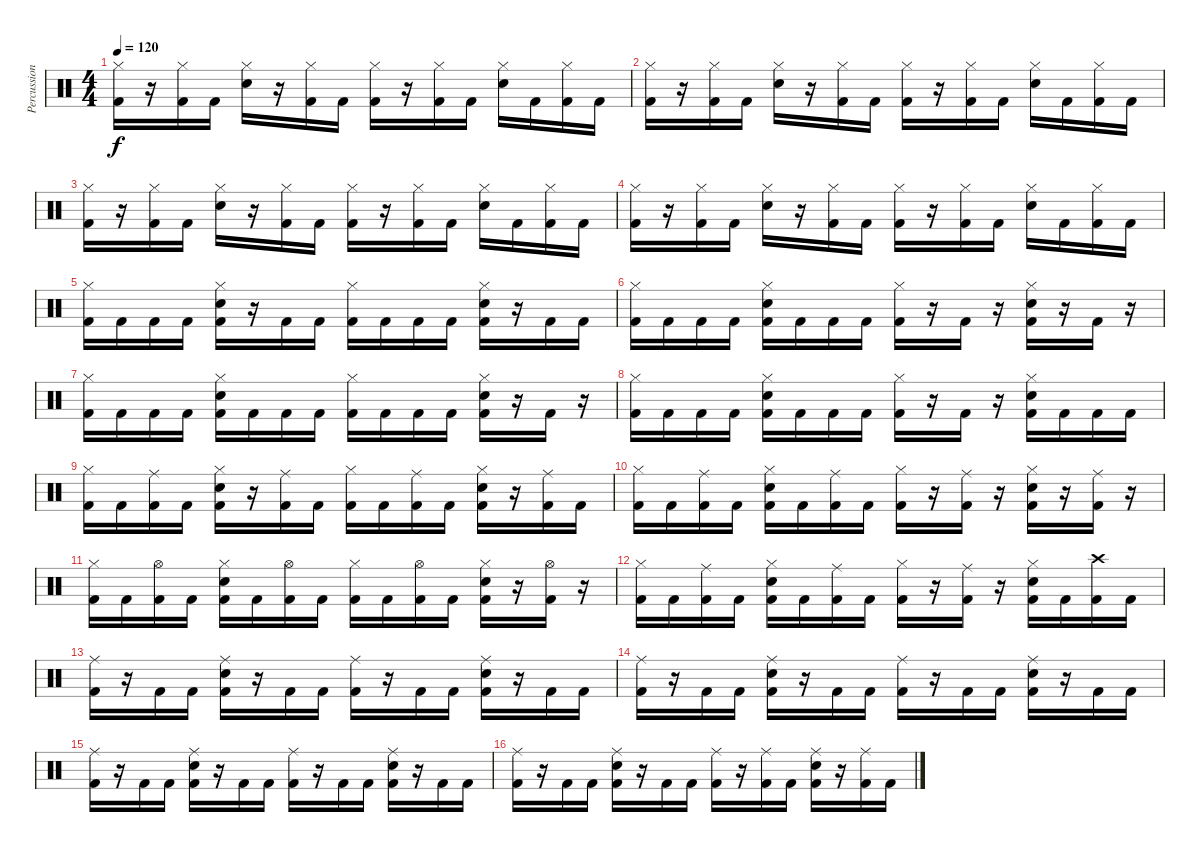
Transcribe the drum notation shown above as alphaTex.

\track ("Percussions" "Percussion") {instrument percussion}
\staff {score}
\articulation defaults
\ts (4 4)
\tempo 120
\clef neutral
\ks c
("Hi-Hat (closed)" "Kick (hit) 2").16{dy f} r.16 ("Hi-Hat (closed)" "Kick (hit) 2").16 "Kick (hit) 2".16 ("Hi-Hat (closed)" "Snare (hit) 2").16 r.16 ("Hi-Hat (closed)" "Kick (hit) 2").16 "Kick (hit) 2".16 ("Hi-Hat (closed)" "Kick (hit) 2").16 r.16 ("Hi-Hat (closed)" "Kick (hit) 2").16 "Kick (hit) 2".16 ("Hi-Hat (closed)" "Snare (hit) 2").16 "Kick (hit) 2".16 ("Hi-Hat (closed)" "Kick (hit) 2").16 "Kick (hit) 2".16 |
("Hi-Hat (closed)" "Kick (hit) 2").16 r.16 ("Hi-Hat (closed)" "Kick (hit) 2").16 "Kick (hit) 2".16 ("Hi-Hat (closed)" "Snare (hit) 2").16 r.16 ("Hi-Hat (closed)" "Kick (hit) 2").16 "Kick (hit) 2".16 ("Hi-Hat (closed)" "Kick (hit) 2").16 r.16 ("Hi-Hat (closed)" "Kick (hit) 2").16 "Kick (hit) 2".16 ("Hi-Hat (closed)" "Snare (hit) 2").16 "Kick (hit) 2".16 ("Hi-Hat (closed)" "Kick (hit) 2").16 "Kick (hit) 2".16 |
("Hi-Hat (closed)" "Kick (hit) 2").16 r.16 ("Hi-Hat (closed)" "Kick (hit) 2").16 "Kick (hit) 2".16 ("Hi-Hat (closed)" "Snare (hit) 2").16 r.16 ("Hi-Hat (closed)" "Kick (hit) 2").16 "Kick (hit) 2".16 ("Hi-Hat (closed)" "Kick (hit) 2").16 r.16 ("Hi-Hat (closed)" "Kick (hit) 2").16 "Kick (hit) 2".16 ("Hi-Hat (closed)" "Snare (hit) 2").16 "Kick (hit) 2".16 ("Hi-Hat (closed)" "Kick (hit) 2").16 "Kick (hit) 2".16 |
("Hi-Hat (closed)" "Kick (hit) 2").16 r.16 ("Hi-Hat (closed)" "Kick (hit) 2").16 "Kick (hit) 2".16 ("Hi-Hat (closed)" "Snare (hit) 2").16 r.16 ("Hi-Hat (closed)" "Kick (hit) 2").16 "Kick (hit) 2".16 ("Hi-Hat (closed)" "Kick (hit) 2").16 r.16 ("Hi-Hat (closed)" "Kick (hit) 2").16 "Kick (hit) 2".16 ("Hi-Hat (closed)" "Snare (hit) 2").16 "Kick (hit) 2".16 ("Hi-Hat (closed)" "Kick (hit) 2").16 "Kick (hit) 2".16 |
("Hi-Hat (closed)" "Kick (hit) 2").16 "Kick (hit) 2".16 "Kick (hit) 2".16 "Kick (hit) 2".16 ("Hi-Hat (closed)" "Kick (hit) 2" "Snare (hit) 2").16 r.16 "Kick (hit) 2".16 "Kick (hit) 2".16 ("Hi-Hat (closed)" "Kick (hit) 2").16 "Kick (hit) 2".16 "Kick (hit) 2".16 "Kick (hit) 2".16 ("Hi-Hat (closed)" "Kick (hit) 2" "Snare (hit) 2").16 r.16 "Kick (hit) 2".16 "Kick (hit) 2".16 |
("Hi-Hat (closed)" "Kick (hit) 2").16 "Kick (hit) 2".16 "Kick (hit) 2".16 "Kick (hit) 2".16 ("Hi-Hat (closed)" "Kick (hit) 2" "Snare (hit) 2").16 "Kick (hit) 2".16 "Kick (hit) 2".16 "Kick (hit) 2".16 ("Hi-Hat (closed)" "Kick (hit) 2").16 r.16 "Kick (hit) 2".16 r.16 ("Hi-Hat (closed)" "Kick (hit) 2" "Snare (hit) 2").16 r.16 "Kick (hit) 2".16 r.16 |
("Hi-Hat (closed)" "Kick (hit) 2").16 "Kick (hit) 2".16 "Kick (hit) 2".16 "Kick (hit) 2".16 ("Hi-Hat (closed)" "Kick (hit) 2" "Snare (hit) 2").16 "Kick (hit) 2".16 "Kick (hit) 2".16 "Kick (hit) 2".16 ("Hi-Hat (closed)" "Kick (hit) 2").16 "Kick (hit) 2".16 "Kick (hit) 2".16 "Kick (hit) 2".16 ("Hi-Hat (closed)" "Kick (hit) 2" "Snare (hit) 2").16 r.16 "Kick (hit) 2".16 r.16 |
("Hi-Hat (closed)" "Kick (hit) 2").16 "Kick (hit) 2".16 "Kick (hit) 2".16 "Kick (hit) 2".16 ("Hi-Hat (closed)" "Kick (hit) 2" "Snare (hit) 2").16 "Kick (hit) 2".16 "Kick (hit) 2".16 "Kick (hit) 2".16 ("Hi-Hat (closed)" "Kick (hit) 2").16 r.16 "Kick (hit) 2".16 r.16 ("Hi-Hat (closed)" "Kick (hit) 2" "Snare (hit) 2").16 "Kick (hit) 2".16 "Kick (hit) 2".16 "Kick (hit) 2".16 |
("Hi-Hat (closed)" "Kick (hit) 2").16 "Kick (hit) 2".16 ("Ride (middle)" "Kick (hit) 2").16 "Kick (hit) 2".16 ("Hi-Hat (closed)" "Kick (hit) 2" "Snare (hit) 2").16 r.16 ("Ride (middle)" "Kick (hit) 2").16 "Kick (hit) 2".16 ("Hi-Hat (closed)" "Kick (hit) 2").16 "Kick (hit) 2".16 ("Ride (middle)" "Kick (hit) 2").16 "Kick (hit) 2".16 ("Hi-Hat (closed)" "Kick (hit) 2" "Snare (hit) 2").16 r.16 ("Ride (middle)" "Kick (hit) 2").16 "Kick (hit) 2".16 |
("Hi-Hat (closed)" "Kick (hit) 2").16 "Kick (hit) 2".16 ("Ride (middle)" "Kick (hit) 2").16 "Kick (hit) 2".16 ("Hi-Hat (closed)" "Kick (hit) 2" "Snare (hit) 2").16 "Kick (hit) 2".16 ("Ride (middle)" "Kick (hit) 2").16 "Kick (hit) 2".16 ("Hi-Hat (closed)" "Kick (hit) 2").16 r.16 ("Ride (middle)" "Kick (hit) 2").16 r.16 ("Hi-Hat (closed)" "Kick (hit) 2" "Snare (hit) 2").16 r.16 ("Ride (middle)" "Kick (hit) 2").16 r.16 |
("Hi-Hat (closed)" "Kick (hit) 2").16 "Kick (hit) 2".16 ("Hi-Hat (open)" "Kick (hit) 2").16 "Kick (hit) 2".16 ("Hi-Hat (closed)" "Kick (hit) 2" "Snare (hit) 2").16 "Kick (hit) 2".16 ("Hi-Hat (open)" "Kick (hit) 2").16 "Kick (hit) 2".16 ("Hi-Hat (closed)" "Kick (hit) 2").16 "Kick (hit) 2".16 ("Hi-Hat (open)" "Kick (hit) 2").16 "Kick (hit) 2".16 ("Hi-Hat (closed)" "Kick (hit) 2" "Snare (hit) 2").16 r.16 ("Hi-Hat (open)" "Kick (hit) 2").16 r.16 |
("Hi-Hat (closed)" "Kick (hit) 2").16 "Kick (hit) 2".16 ("Ride (middle)" "Kick (hit) 2").16 "Kick (hit) 2".16 ("Hi-Hat (closed)" "Kick (hit) 2" "Snare (hit) 2").16 "Kick (hit) 2".16 ("Ride (middle)" "Kick (hit) 2").16 "Kick (hit) 2".16 ("Hi-Hat (closed)" "Kick (hit) 2").16 r.16 ("Ride (middle)" "Kick (hit) 2").16 r.16 ("Hi-Hat (closed)" "Kick (hit) 2" "Snare (hit) 2").16 "Kick (hit) 2".16 ("Crash high (hit)" "Kick (hit) 2").16 "Kick (hit) 2".16 |
("Ride (middle)" "Kick (hit) 2").16 r.16 "Kick (hit) 2".16 "Kick (hit) 2".16 ("Ride (middle)" "Kick (hit) 2" "Snare (hit) 2").16 r.16 "Kick (hit) 2".16 "Kick (hit) 2".16 ("Ride (middle)" "Kick (hit) 2").16 r.16 "Kick (hit) 2".16 "Kick (hit) 2".16 ("Ride (middle)" "Kick (hit) 2" "Snare (hit) 2").16 r.16 "Kick (hit) 2".16 "Kick (hit) 2".16 |
("Ride (middle)" "Kick (hit) 2").16 r.16 "Kick (hit) 2".16 "Kick (hit) 2".16 ("Ride (middle)" "Kick (hit) 2" "Snare (hit) 2").16 r.16 "Kick (hit) 2".16 "Kick (hit) 2".16 ("Ride (middle)" "Kick (hit) 2").16 r.16 "Kick (hit) 2".16 "Kick (hit) 2".16 ("Ride (middle)" "Kick (hit) 2" "Snare (hit) 2").16 r.16 "Kick (hit) 2".16 "Kick (hit) 2".16 |
("Ride (middle)" "Kick (hit) 2").16 r.16 "Kick (hit) 2".16 "Kick (hit) 2".16 ("Ride (middle)" "Kick (hit) 2" "Snare (hit) 2").16 r.16 "Kick (hit) 2".16 "Kick (hit) 2".16 ("Ride (middle)" "Kick (hit) 2").16 r.16 "Kick (hit) 2".16 "Kick (hit) 2".16 ("Ride (middle)" "Kick (hit) 2" "Snare (hit) 2").16 r.16 "Kick (hit) 2".16 "Kick (hit) 2".16 |
("Ride (middle)" "Kick (hit) 2").16 r.16 "Kick (hit) 2".16 "Kick (hit) 2".16 ("Ride (middle)" "Kick (hit) 2" "Snare (hit) 2").16 r.16 "Kick (hit) 2".16 "Kick (hit) 2".16 ("Ride (middle)" "Kick (hit) 2").16 r.16 ("Ride (middle)" "Kick (hit) 2").16 "Kick (hit) 2".16 ("Ride (middle)" "Kick (hit) 2" "Snare (hit) 2").16 r.16 ("Ride (middle)" "Kick (hit) 2").16 "Kick (hit) 2".16
